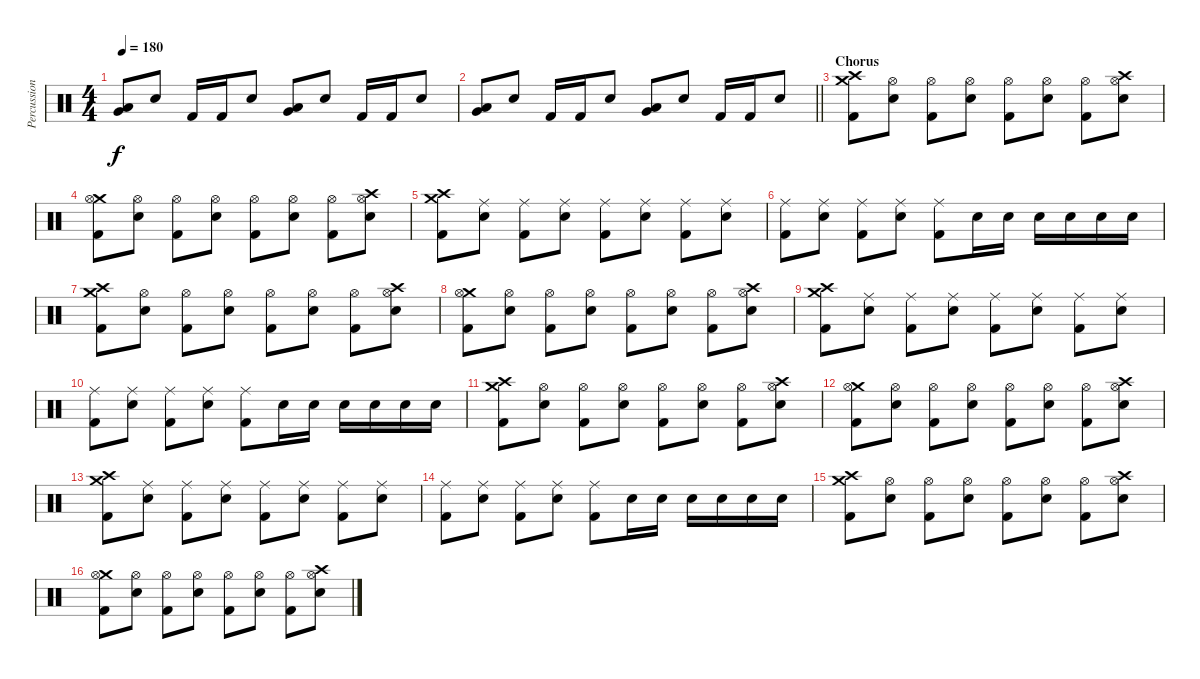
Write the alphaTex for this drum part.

\track ("Percussion" "Percussion") {instrument percussion}
\staff {score}
\articulation defaults
\ts (4 4)
\tempo 180
\clef neutral
\ks c
("Very Low Tom (hit)" "Low Floor Tom (hit)").8{dy f} "Electric Snare (hit)".8 "Kick (hit) 2".16 "Kick (hit) 2".16 "Electric Snare (hit)".8 ("Very Low Tom (hit)" "Low Floor Tom (hit)").8 "Electric Snare (hit)".8 "Kick (hit) 2".16 "Kick (hit) 2".16 "Electric Snare (hit)".8 |
\barLineRight lightlight
("Very Low Tom (hit)" "Low Floor Tom (hit)").8 "Electric Snare (hit)".8 "Kick (hit) 2".16 "Kick (hit) 2".16 "Electric Snare (hit)".8 ("Very Low Tom (hit)" "Low Floor Tom (hit)").8 "Electric Snare (hit)".8 "Kick (hit) 2".16 "Kick (hit) 2".16 "Electric Snare (hit)".8 |
\section ("" "Chorus")
("Crash high (hit)" "Crash medium (hit)" "Kick (hit) 2").8 ("Hi-Hat (open)" "Electric Snare (hit)").8 ("Hi-Hat (open)" "Kick (hit) 2").8 ("Hi-Hat (open)" "Electric Snare (hit)").8 ("Hi-Hat (open)" "Kick (hit) 2").8 ("Hi-Hat (open)" "Electric Snare (hit)").8 ("Hi-Hat (open)" "Kick (hit) 2").8 ("Crash high (hit)" "Hi-Hat (open)" "Electric Snare (hit)").8 |
("Crash medium (hit)" "Hi-Hat (open)" "Kick (hit) 2").8 ("Hi-Hat (open)" "Electric Snare (hit)").8 ("Hi-Hat (open)" "Kick (hit) 2").8 ("Hi-Hat (open)" "Electric Snare (hit)").8 ("Hi-Hat (open)" "Kick (hit) 2").8 ("Hi-Hat (open)" "Electric Snare (hit)").8 ("Hi-Hat (open)" "Kick (hit) 2").8 ("Crash high (hit)" "Hi-Hat (open)" "Electric Snare (hit)").8 |
("Crash high (hit)" "Crash medium (hit)" "Kick (hit) 2").8 ("Ride (middle)" "Electric Snare (hit)").8 ("Ride (middle)" "Kick (hit) 2").8 ("Ride (middle)" "Electric Snare (hit)").8 ("Ride (middle)" "Kick (hit) 2").8 ("Ride (middle)" "Electric Snare (hit)").8 ("Ride (middle)" "Kick (hit) 2").8 ("Ride (middle)" "Electric Snare (hit)").8 |
("Ride (middle)" "Kick (hit) 2").8 ("Ride (middle)" "Electric Snare (hit)").8 ("Ride (middle)" "Kick (hit) 2").8 ("Ride (middle)" "Electric Snare (hit)").8 ("Ride (middle)" "Kick (hit) 2").8 "Electric Snare (hit)".16 "Electric Snare (hit)".16 "Electric Snare (hit)".16 "Electric Snare (hit)".16 "Electric Snare (hit)".16 "Electric Snare (hit)".16 |
("Crash high (hit)" "Crash medium (hit)" "Kick (hit) 2").8 ("Hi-Hat (open)" "Electric Snare (hit)").8 ("Hi-Hat (open)" "Kick (hit) 2").8 ("Hi-Hat (open)" "Electric Snare (hit)").8 ("Hi-Hat (open)" "Kick (hit) 2").8 ("Hi-Hat (open)" "Electric Snare (hit)").8 ("Hi-Hat (open)" "Kick (hit) 2").8 ("Crash high (hit)" "Hi-Hat (open)" "Electric Snare (hit)").8 |
("Crash medium (hit)" "Hi-Hat (open)" "Kick (hit) 2").8 ("Hi-Hat (open)" "Electric Snare (hit)").8 ("Hi-Hat (open)" "Kick (hit) 2").8 ("Hi-Hat (open)" "Electric Snare (hit)").8 ("Hi-Hat (open)" "Kick (hit) 2").8 ("Hi-Hat (open)" "Electric Snare (hit)").8 ("Hi-Hat (open)" "Kick (hit) 2").8 ("Crash high (hit)" "Hi-Hat (open)" "Electric Snare (hit)").8 |
("Crash high (hit)" "Crash medium (hit)" "Kick (hit) 2").8 ("Ride (middle)" "Electric Snare (hit)").8 ("Ride (middle)" "Kick (hit) 2").8 ("Ride (middle)" "Electric Snare (hit)").8 ("Ride (middle)" "Kick (hit) 2").8 ("Ride (middle)" "Electric Snare (hit)").8 ("Ride (middle)" "Kick (hit) 2").8 ("Ride (middle)" "Electric Snare (hit)").8 |
("Ride (middle)" "Kick (hit) 2").8 ("Ride (middle)" "Electric Snare (hit)").8 ("Ride (middle)" "Kick (hit) 2").8 ("Ride (middle)" "Electric Snare (hit)").8 ("Ride (middle)" "Kick (hit) 2").8 "Electric Snare (hit)".16 "Electric Snare (hit)".16 "Electric Snare (hit)".16 "Electric Snare (hit)".16 "Electric Snare (hit)".16 "Electric Snare (hit)".16 |
("Crash high (hit)" "Crash medium (hit)" "Kick (hit) 2").8 ("Hi-Hat (open)" "Electric Snare (hit)").8 ("Hi-Hat (open)" "Kick (hit) 2").8 ("Hi-Hat (open)" "Electric Snare (hit)").8 ("Hi-Hat (open)" "Kick (hit) 2").8 ("Hi-Hat (open)" "Electric Snare (hit)").8 ("Hi-Hat (open)" "Kick (hit) 2").8 ("Crash high (hit)" "Hi-Hat (open)" "Electric Snare (hit)").8 |
("Crash medium (hit)" "Hi-Hat (open)" "Kick (hit) 2").8 ("Hi-Hat (open)" "Electric Snare (hit)").8 ("Hi-Hat (open)" "Kick (hit) 2").8 ("Hi-Hat (open)" "Electric Snare (hit)").8 ("Hi-Hat (open)" "Kick (hit) 2").8 ("Hi-Hat (open)" "Electric Snare (hit)").8 ("Hi-Hat (open)" "Kick (hit) 2").8 ("Crash high (hit)" "Hi-Hat (open)" "Electric Snare (hit)").8 |
("Crash high (hit)" "Crash medium (hit)" "Kick (hit) 2").8 ("Ride (middle)" "Electric Snare (hit)").8 ("Ride (middle)" "Kick (hit) 2").8 ("Ride (middle)" "Electric Snare (hit)").8 ("Ride (middle)" "Kick (hit) 2").8 ("Ride (middle)" "Electric Snare (hit)").8 ("Ride (middle)" "Kick (hit) 2").8 ("Ride (middle)" "Electric Snare (hit)").8 |
("Ride (middle)" "Kick (hit) 2").8 ("Ride (middle)" "Electric Snare (hit)").8 ("Ride (middle)" "Kick (hit) 2").8 ("Ride (middle)" "Electric Snare (hit)").8 ("Ride (middle)" "Kick (hit) 2").8 "Electric Snare (hit)".16 "Electric Snare (hit)".16 "Electric Snare (hit)".16 "Electric Snare (hit)".16 "Electric Snare (hit)".16 "Electric Snare (hit)".16 |
("Crash high (hit)" "Crash medium (hit)" "Kick (hit) 2").8 ("Hi-Hat (open)" "Electric Snare (hit)").8 ("Hi-Hat (open)" "Kick (hit) 2").8 ("Hi-Hat (open)" "Electric Snare (hit)").8 ("Hi-Hat (open)" "Kick (hit) 2").8 ("Hi-Hat (open)" "Electric Snare (hit)").8 ("Hi-Hat (open)" "Kick (hit) 2").8 ("Crash high (hit)" "Hi-Hat (open)" "Electric Snare (hit)").8 |
("Crash medium (hit)" "Hi-Hat (open)" "Kick (hit) 2").8 ("Hi-Hat (open)" "Electric Snare (hit)").8 ("Hi-Hat (open)" "Kick (hit) 2").8 ("Hi-Hat (open)" "Electric Snare (hit)").8 ("Hi-Hat (open)" "Kick (hit) 2").8 ("Hi-Hat (open)" "Electric Snare (hit)").8 ("Hi-Hat (open)" "Kick (hit) 2").8 ("Crash high (hit)" "Hi-Hat (open)" "Electric Snare (hit)").8
